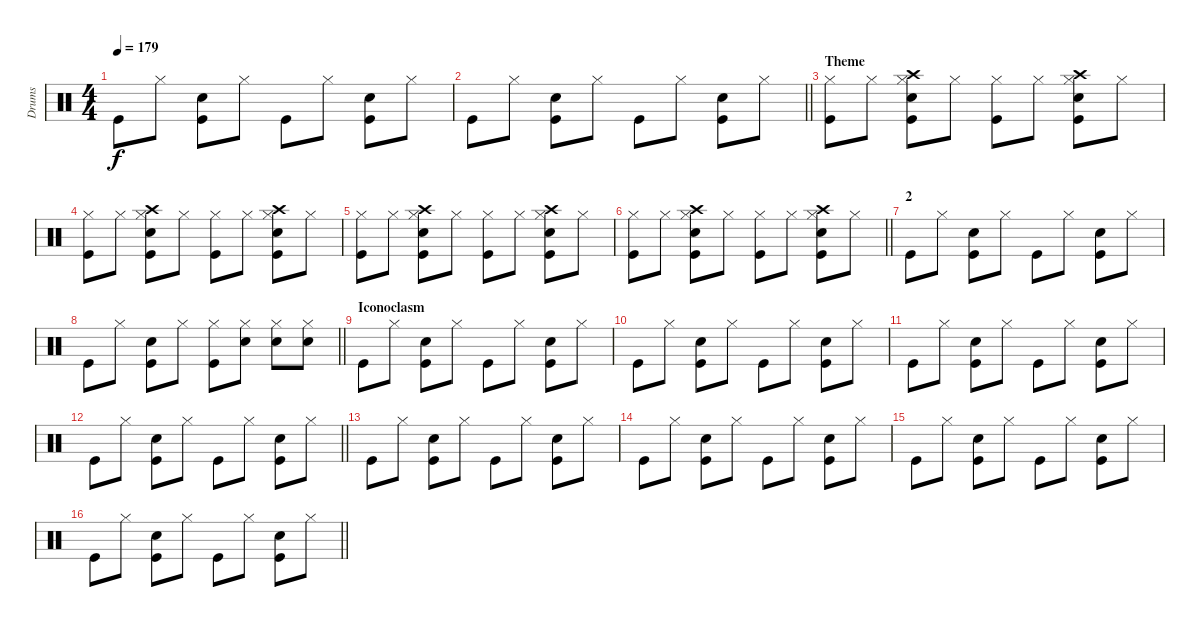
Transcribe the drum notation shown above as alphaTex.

\track ("Drums" "Drums") {instrument percussion}
\staff {score}
\articulation defaults
\ts (4 4)
\tempo 179
\clef neutral
\ks c "Kick (hit)".8{dy f} "Hi-Hat (closed)".8
("Snare (hit) 2" "Kick (hit)").8 "Hi-Hat (closed)".8 "Kick (hit)".8 "Hi-Hat (closed)".8 ("Snare (hit) 2" "Kick (hit)").8 "Hi-Hat (closed)".8 |
\barLineRight lightlight "Kick (hit)".8 "Hi-Hat (closed)".8
("Snare (hit) 2" "Kick (hit)").8 "Hi-Hat (closed)".8 "Kick (hit)".8 "Hi-Hat (closed)".8 ("Snare (hit) 2" "Kick (hit)").8 "Hi-Hat (closed)".8 |
\section ("" "Theme")
("Hi-Hat (closed)" "Kick (hit)").8 "Hi-Hat (closed)".8 ("Crash high (hit)" "Hi-Hat (closed)" "Snare (hit) 2" "Kick (hit)").8 "Hi-Hat (closed)".8 ("Hi-Hat (closed)" "Kick (hit)").8 "Hi-Hat (closed)".8 ("Crash high (hit)" "Hi-Hat (closed)" "Snare (hit) 2" "Kick (hit)").8 "Hi-Hat (closed)".8 |
("Hi-Hat (closed)" "Kick (hit)").8 "Hi-Hat (closed)".8 ("Crash high (hit)" "Hi-Hat (closed)" "Snare (hit) 2" "Kick (hit)").8 "Hi-Hat (closed)".8 ("Hi-Hat (closed)" "Kick (hit)").8 "Hi-Hat (closed)".8 ("Crash high (hit)" "Hi-Hat (closed)" "Snare (hit) 2" "Kick (hit)").8 "Hi-Hat (closed)".8 |
("Hi-Hat (closed)" "Kick (hit)").8 "Hi-Hat (closed)".8 ("Crash high (hit)" "Hi-Hat (closed)" "Snare (hit) 2" "Kick (hit)").8 "Hi-Hat (closed)".8 ("Hi-Hat (closed)" "Kick (hit)").8 "Hi-Hat (closed)".8 ("Crash high (hit)" "Hi-Hat (closed)" "Snare (hit) 2" "Kick (hit)").8 "Hi-Hat (closed)".8 |
\barLineRight lightlight
("Hi-Hat (closed)" "Kick (hit)").8 "Hi-Hat (closed)".8 ("Crash high (hit)" "Hi-Hat (closed)" "Snare (hit) 2" "Kick (hit)").8 "Hi-Hat (closed)".8 ("Hi-Hat (closed)" "Kick (hit)").8 "Hi-Hat (closed)".8 ("Crash high (hit)" "Hi-Hat (closed)" "Snare (hit) 2" "Kick (hit)").8 "Hi-Hat (closed)".8 |
\section ("" "2")
"Kick (hit)".8 "Hi-Hat (closed)".8 ("Snare (hit) 2" "Kick (hit)").8 "Hi-Hat (closed)".8 "Kick (hit)".8 "Hi-Hat (closed)".8 ("Snare (hit) 2" "Kick (hit)").8 "Hi-Hat (closed)".8 |
\barLineRight lightlight "Kick (hit)".8 "Hi-Hat (closed)".8
("Snare (hit) 2" "Kick (hit)").8 "Hi-Hat (closed)".8 ("Hi-Hat (closed)" "Kick (hit)").8 ("Hi-Hat (closed)" "Snare (hit) 2").8 ("Hi-Hat (closed)" "Snare (hit) 2").8 ("Hi-Hat (closed)" "Snare (hit) 2").8 |
\section ("" "Iconoclasm")
"Kick (hit)".8 "Hi-Hat (closed)".8 ("Snare (hit) 2" "Kick (hit)").8 "Hi-Hat (closed)".8 "Kick (hit)".8 "Hi-Hat (closed)".8 ("Snare (hit) 2" "Kick (hit)").8 "Hi-Hat (closed)".8 |
"Kick (hit)".8 "Hi-Hat (closed)".8 ("Snare (hit) 2" "Kick (hit)").8 "Hi-Hat (closed)".8 "Kick (hit)".8 "Hi-Hat (closed)".8 ("Snare (hit) 2" "Kick (hit)").8 "Hi-Hat (closed)".8 |
"Kick (hit)".8 "Hi-Hat (closed)".8 ("Snare (hit) 2" "Kick (hit)").8 "Hi-Hat (closed)".8 "Kick (hit)".8 "Hi-Hat (closed)".8 ("Snare (hit) 2" "Kick (hit)").8 "Hi-Hat (closed)".8 |
\barLineRight lightlight "Kick (hit)".8 "Hi-Hat (closed)".8
("Snare (hit) 2" "Kick (hit)").8 "Hi-Hat (closed)".8 "Kick (hit)".8 "Hi-Hat (closed)".8 ("Snare (hit) 2" "Kick (hit)").8 "Hi-Hat (closed)".8 |
"Kick (hit)".8 "Hi-Hat (closed)".8 ("Snare (hit) 2" "Kick (hit)").8 "Hi-Hat (closed)".8 "Kick (hit)".8 "Hi-Hat (closed)".8 ("Snare (hit) 2" "Kick (hit)").8 "Hi-Hat (closed)".8 |
"Kick (hit)".8 "Hi-Hat (closed)".8 ("Snare (hit) 2" "Kick (hit)").8 "Hi-Hat (closed)".8 "Kick (hit)".8 "Hi-Hat (closed)".8 ("Snare (hit) 2" "Kick (hit)").8 "Hi-Hat (closed)".8 |
"Kick (hit)".8 "Hi-Hat (closed)".8 ("Snare (hit) 2" "Kick (hit)").8 "Hi-Hat (closed)".8 "Kick (hit)".8 "Hi-Hat (closed)".8 ("Snare (hit) 2" "Kick (hit)").8 "Hi-Hat (closed)".8 |
\barLineRight lightlight "Kick (hit)".8 "Hi-Hat (closed)".8
("Snare (hit) 2" "Kick (hit)").8 "Hi-Hat (closed)".8 "Kick (hit)".8 "Hi-Hat (closed)".8 ("Snare (hit) 2" "Kick (hit)").8 "Hi-Hat (closed)".8
